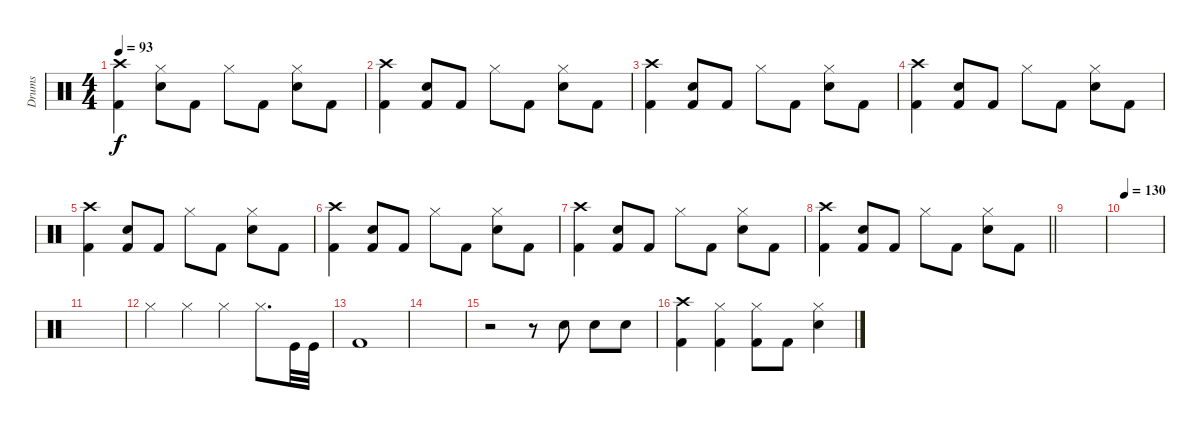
\track ("Drums" "Drums") {instrument percussion}
\staff {score}
\articulation defaults
\ts (4 4)
\tempo 93
\clef neutral
\ks c
("Crash high (hit)" "Kick (hit) 2").4{dy f} ("Hi-Hat (closed)" "Snare (hit) 2").8 "Kick (hit) 2".8 "Hi-Hat (closed)".8 "Kick (hit) 2".8 ("Hi-Hat (closed)" "Snare (hit) 2").8 "Kick (hit) 2".8 |
("Crash high (hit)" "Kick (hit) 2").4 ("Kick (hit) 2" "Snare (hit) 2").8 "Kick (hit) 2".8 "Hi-Hat (closed)".8 "Kick (hit) 2".8 ("Hi-Hat (closed)" "Snare (hit) 2").8 "Kick (hit) 2".8 |
("Crash high (hit)" "Kick (hit) 2").4 ("Kick (hit) 2" "Snare (hit) 2").8 "Kick (hit) 2".8 "Hi-Hat (closed)".8 "Kick (hit) 2".8 ("Hi-Hat (closed)" "Snare (hit) 2").8 "Kick (hit) 2".8 |
("Crash high (hit)" "Kick (hit) 2").4 ("Kick (hit) 2" "Snare (hit) 2").8 "Kick (hit) 2".8 "Hi-Hat (closed)".8 "Kick (hit) 2".8 ("Hi-Hat (closed)" "Snare (hit) 2").8 "Kick (hit) 2".8 |
("Crash high (hit)" "Kick (hit) 2").4 ("Kick (hit) 2" "Snare (hit) 2").8 "Kick (hit) 2".8 "Hi-Hat (closed)".8 "Kick (hit) 2".8 ("Hi-Hat (closed)" "Snare (hit) 2").8 "Kick (hit) 2".8 |
("Crash high (hit)" "Kick (hit) 2").4 ("Kick (hit) 2" "Snare (hit) 2").8 "Kick (hit) 2".8 "Hi-Hat (closed)".8 "Kick (hit) 2".8 ("Hi-Hat (closed)" "Snare (hit) 2").8 "Kick (hit) 2".8 |
("Crash high (hit)" "Kick (hit) 2").4 ("Kick (hit) 2" "Snare (hit) 2").8 "Kick (hit) 2".8 "Hi-Hat (closed)".8 "Kick (hit) 2".8 ("Hi-Hat (closed)" "Snare (hit) 2").8 "Kick (hit) 2".8 |
\barLineRight lightlight
("Crash high (hit)" "Kick (hit) 2").4 ("Kick (hit) 2" "Snare (hit) 2").8 "Kick (hit) 2".8 "Hi-Hat (closed)".8 "Kick (hit) 2".8 ("Hi-Hat (closed)" "Snare (hit) 2").8 "Kick (hit) 2".8 |
|
\tempo 130
|
|
"Hi-Hat (closed)".4 "Hi-Hat (closed)".4 "Hi-Hat (closed)".4 "Hi-Hat (closed)".8{d} "Kick (hit)".32 "Kick (hit)".32 |
"Kick (hit) 2".1 |
|
r.2 r.8 "Snare (hit) 2".8 "Snare (hit) 2".8 "Snare (hit) 2".8 |
("Crash high (hit)" "Kick (hit) 2").4 ("Hi-Hat (closed)" "Kick (hit) 2").4 ("Hi-Hat (closed)" "Kick (hit) 2").8 "Kick (hit) 2".8 ("Hi-Hat (closed)" "Snare (hit) 2").4
